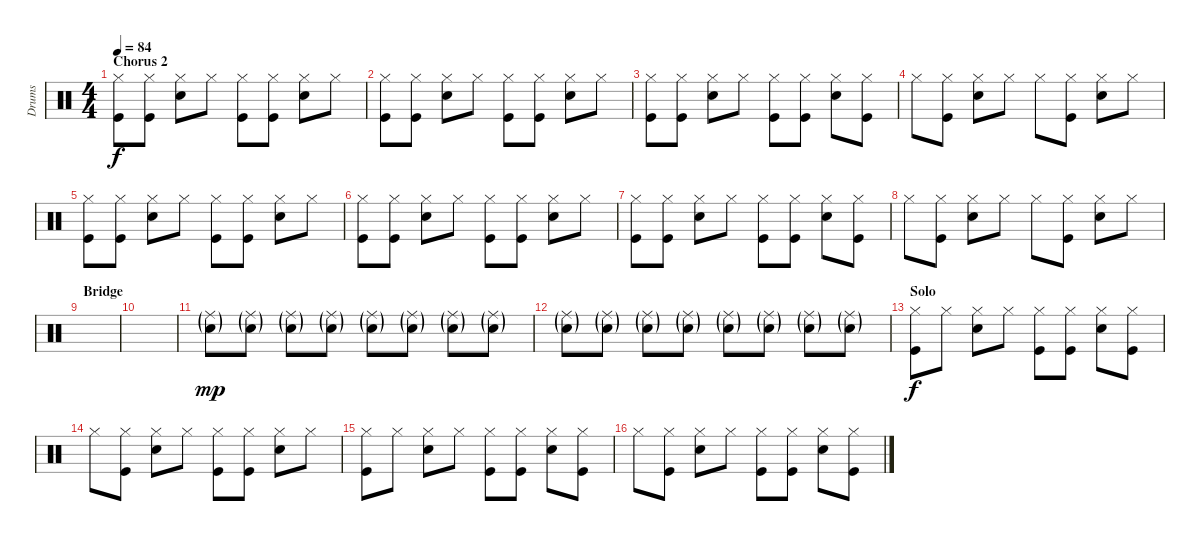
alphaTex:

\track ("Drums" "Drums") {instrument percussion}
\staff {score}
\articulation defaults
\ts (4 4)
\section ("" "Chorus 2")
\tempo 84
\clef neutral
\ks c
("Hi-Hat (closed)" "Kick (hit)").8{dy f} ("Hi-Hat (closed)" "Kick (hit)").8 ("Hi-Hat (closed)" "Snare (hit) 2").8 "Hi-Hat (closed)".8 ("Hi-Hat (closed)" "Kick (hit)").8 ("Hi-Hat (closed)" "Kick (hit)").8 ("Hi-Hat (closed)" "Snare (hit) 2").8 "Hi-Hat (closed)".8 |
("Hi-Hat (closed)" "Kick (hit)").8 ("Hi-Hat (closed)" "Kick (hit)").8 ("Hi-Hat (closed)" "Snare (hit) 2").8 "Hi-Hat (closed)".8 ("Hi-Hat (closed)" "Kick (hit)").8 ("Hi-Hat (closed)" "Kick (hit)").8 ("Hi-Hat (closed)" "Snare (hit) 2").8 "Hi-Hat (closed)".8 |
("Hi-Hat (closed)" "Kick (hit)").8 ("Hi-Hat (closed)" "Kick (hit)").8 ("Hi-Hat (closed)" "Snare (hit) 2").8 "Hi-Hat (closed)".8 ("Hi-Hat (closed)" "Kick (hit)").8 ("Hi-Hat (closed)" "Kick (hit)").8 ("Hi-Hat (closed)" "Snare (hit) 2").8 ("Hi-Hat (closed)" "Kick (hit)").8 |
"Hi-Hat (closed)".8 ("Hi-Hat (closed)" "Kick (hit)").8 ("Hi-Hat (closed)" "Snare (hit) 2").8 "Hi-Hat (closed)".8 "Hi-Hat (closed)".8 ("Hi-Hat (closed)" "Kick (hit)").8 ("Hi-Hat (closed)" "Snare (hit) 2").8 "Hi-Hat (closed)".8 |
("Hi-Hat (closed)" "Kick (hit)").8 ("Hi-Hat (closed)" "Kick (hit)").8 ("Hi-Hat (closed)" "Snare (hit) 2").8 "Hi-Hat (closed)".8 ("Hi-Hat (closed)" "Kick (hit)").8 ("Hi-Hat (closed)" "Kick (hit)").8 ("Hi-Hat (closed)" "Snare (hit) 2").8 "Hi-Hat (closed)".8 |
("Hi-Hat (closed)" "Kick (hit)").8 ("Hi-Hat (closed)" "Kick (hit)").8 ("Hi-Hat (closed)" "Snare (hit) 2").8 "Hi-Hat (closed)".8 ("Hi-Hat (closed)" "Kick (hit)").8 ("Hi-Hat (closed)" "Kick (hit)").8 ("Hi-Hat (closed)" "Snare (hit) 2").8 "Hi-Hat (closed)".8 |
("Hi-Hat (closed)" "Kick (hit)").8 ("Hi-Hat (closed)" "Kick (hit)").8 ("Hi-Hat (closed)" "Snare (hit) 2").8 "Hi-Hat (closed)".8 ("Hi-Hat (closed)" "Kick (hit)").8 ("Hi-Hat (closed)" "Kick (hit)").8 ("Hi-Hat (closed)" "Snare (hit) 2").8 ("Hi-Hat (closed)" "Kick (hit)").8 |
"Hi-Hat (closed)".8 ("Hi-Hat (closed)" "Kick (hit)").8 ("Hi-Hat (closed)" "Snare (hit) 2").8 "Hi-Hat (closed)".8 "Hi-Hat (closed)".8 ("Hi-Hat (closed)" "Kick (hit)").8 ("Hi-Hat (closed)" "Snare (hit) 2").8 "Hi-Hat (closed)".8 |
\section ("" "Bridge")
|
|
("Ride (middle)"{g} "Snare (hit) 2"{g}).8{dy mp} ("Ride (middle)"{g} "Snare (hit) 2"{g}).8 ("Ride (middle)"{g} "Snare (hit) 2"{g}).8 ("Ride (middle)"{g} "Snare (hit) 2"{g}).8 ("Ride (middle)"{g} "Snare (hit) 2"{g}).8 ("Ride (middle)"{g} "Snare (hit) 2"{g}).8 ("Ride (middle)"{g} "Snare (hit) 2"{g}).8 ("Ride (middle)"{g} "Snare (hit) 2"{g}).8 |
("Ride (middle)"{g} "Snare (hit) 2"{g}).8 ("Ride (middle)"{g} "Snare (hit) 2"{g}).8 ("Ride (middle)"{g} "Snare (hit) 2"{g}).8 ("Ride (middle)"{g} "Snare (hit) 2"{g}).8 ("Ride (middle)"{g} "Snare (hit) 2"{g}).8 ("Ride (middle)"{g} "Snare (hit) 2"{g}).8 ("Ride (middle)"{g} "Snare (hit) 2"{g}).8 ("Ride (middle)"{g} "Snare (hit) 2"{g}).8 |
\section ("" "Solo")
("Hi-Hat (closed)" "Kick (hit)").8{dy f} "Hi-Hat (closed)".8 ("Hi-Hat (closed)" "Snare (hit) 2").8 "Hi-Hat (closed)".8 ("Hi-Hat (closed)" "Kick (hit)").8 ("Hi-Hat (closed)" "Kick (hit)").8 ("Hi-Hat (closed)" "Snare (hit) 2").8 ("Hi-Hat (closed)" "Kick (hit)").8 |
"Hi-Hat (closed)".8 ("Hi-Hat (closed)" "Kick (hit)").8 ("Hi-Hat (closed)" "Snare (hit) 2").8 "Hi-Hat (closed)".8 ("Hi-Hat (closed)" "Kick (hit)").8 ("Hi-Hat (closed)" "Kick (hit)").8 ("Hi-Hat (closed)" "Snare (hit) 2").8 "Hi-Hat (closed)".8 |
("Hi-Hat (closed)" "Kick (hit)").8 "Hi-Hat (closed)".8 ("Hi-Hat (closed)" "Snare (hit) 2").8 "Hi-Hat (closed)".8 ("Hi-Hat (closed)" "Kick (hit)").8 ("Hi-Hat (closed)" "Kick (hit)").8 ("Hi-Hat (closed)" "Snare (hit) 2").8 ("Hi-Hat (closed)" "Kick (hit)").8 |
"Hi-Hat (closed)".8 ("Hi-Hat (closed)" "Kick (hit)").8 ("Hi-Hat (closed)" "Snare (hit) 2").8 "Hi-Hat (closed)".8 ("Hi-Hat (closed)" "Kick (hit)").8 ("Hi-Hat (closed)" "Kick (hit)").8 ("Hi-Hat (closed)" "Snare (hit) 2").8 ("Hi-Hat (closed)" "Kick (hit)").8
